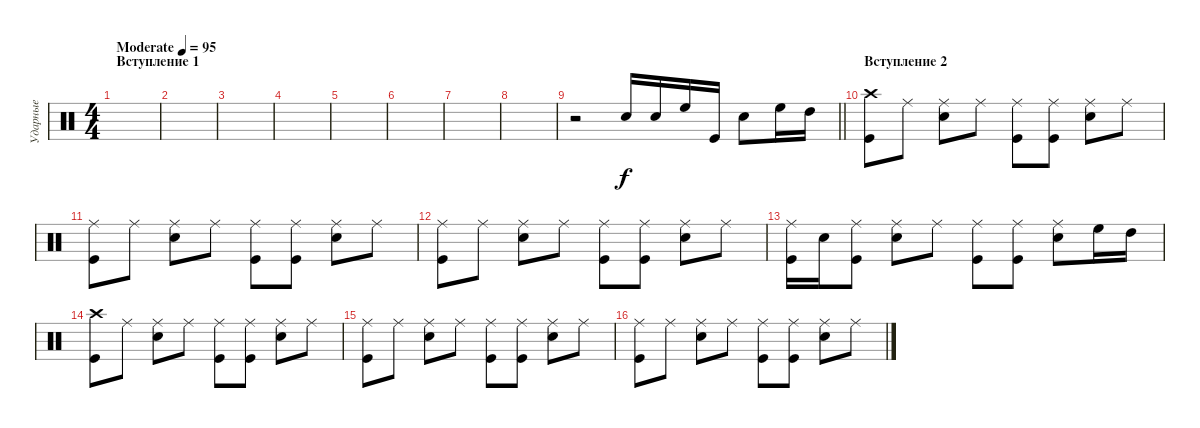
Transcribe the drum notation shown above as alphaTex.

\track ("Ударные" "Ударные") {instrument percussion}
\staff {score}
\articulation defaults
\ts (4 4)
\section ("" "Вступление 1")
\tempo (95 "Moderate")
\clef neutral
\ks c
|
|
|
|
|
|
|
|
\barLineRight lightlight
r.2 "Snare (hit) 2".16 "Snare (hit) 2".16 "High Floor Tom (hit)".16 "Kick (hit)".16 "Snare (hit) 2".8 "High Floor Tom (hit)".16 "High Tom (hit)".16 |
\section ("" "Вступление 2")
("Crash high (hit)" "Kick (hit)").8 "Ride (middle)".8 ("Ride (middle)" "Snare (hit) 2").8 "Ride (middle)".8 ("Ride (middle)" "Kick (hit)").8 ("Ride (middle)" "Kick (hit)").8 ("Ride (middle)" "Snare (hit) 2").8 "Ride (middle)".8 |
("Ride (middle)" "Kick (hit)").8 "Ride (middle)".8 ("Ride (middle)" "Snare (hit) 2").8 "Ride (middle)".8 ("Ride (middle)" "Kick (hit)").8 ("Ride (middle)" "Kick (hit)").8 ("Ride (middle)" "Snare (hit) 2").8 "Ride (middle)".8 |
("Ride (middle)" "Kick (hit)").8 "Ride (middle)".8 ("Ride (middle)" "Snare (hit) 2").8 "Ride (middle)".8 ("Ride (middle)" "Kick (hit)").8 ("Ride (middle)" "Kick (hit)").8 ("Ride (middle)" "Snare (hit) 2").8 "Ride (middle)".8 |
("Ride (middle)" "Kick (hit)").16 "Snare (hit) 2".16 ("Ride (middle)" "Kick (hit)").8 ("Ride (middle)" "Snare (hit) 2").8 "Ride (middle)".8 ("Ride (middle)" "Kick (hit)").8 ("Ride (middle)" "Kick (hit)").8 ("Ride (middle)" "Snare (hit) 2").8 "High Floor Tom (hit)".16 "High Tom (hit)".16 |
("Crash high (hit)" "Kick (hit)").8 "Ride (middle)".8 ("Ride (middle)" "Snare (hit) 2").8 "Ride (middle)".8 ("Ride (middle)" "Kick (hit)").8 ("Ride (middle)" "Kick (hit)").8 ("Ride (middle)" "Snare (hit) 2").8 "Ride (middle)".8 |
("Ride (middle)" "Kick (hit)").8 "Ride (middle)".8 ("Ride (middle)" "Snare (hit) 2").8 "Ride (middle)".8 ("Ride (middle)" "Kick (hit)").8 ("Ride (middle)" "Kick (hit)").8 ("Ride (middle)" "Snare (hit) 2").8 "Ride (middle)".8 |
("Ride (middle)" "Kick (hit)").8 "Ride (middle)".8 ("Ride (middle)" "Snare (hit) 2").8 "Ride (middle)".8 ("Ride (middle)" "Kick (hit)").8 ("Ride (middle)" "Kick (hit)").8 ("Ride (middle)" "Snare (hit) 2").8 "Ride (middle)".8
